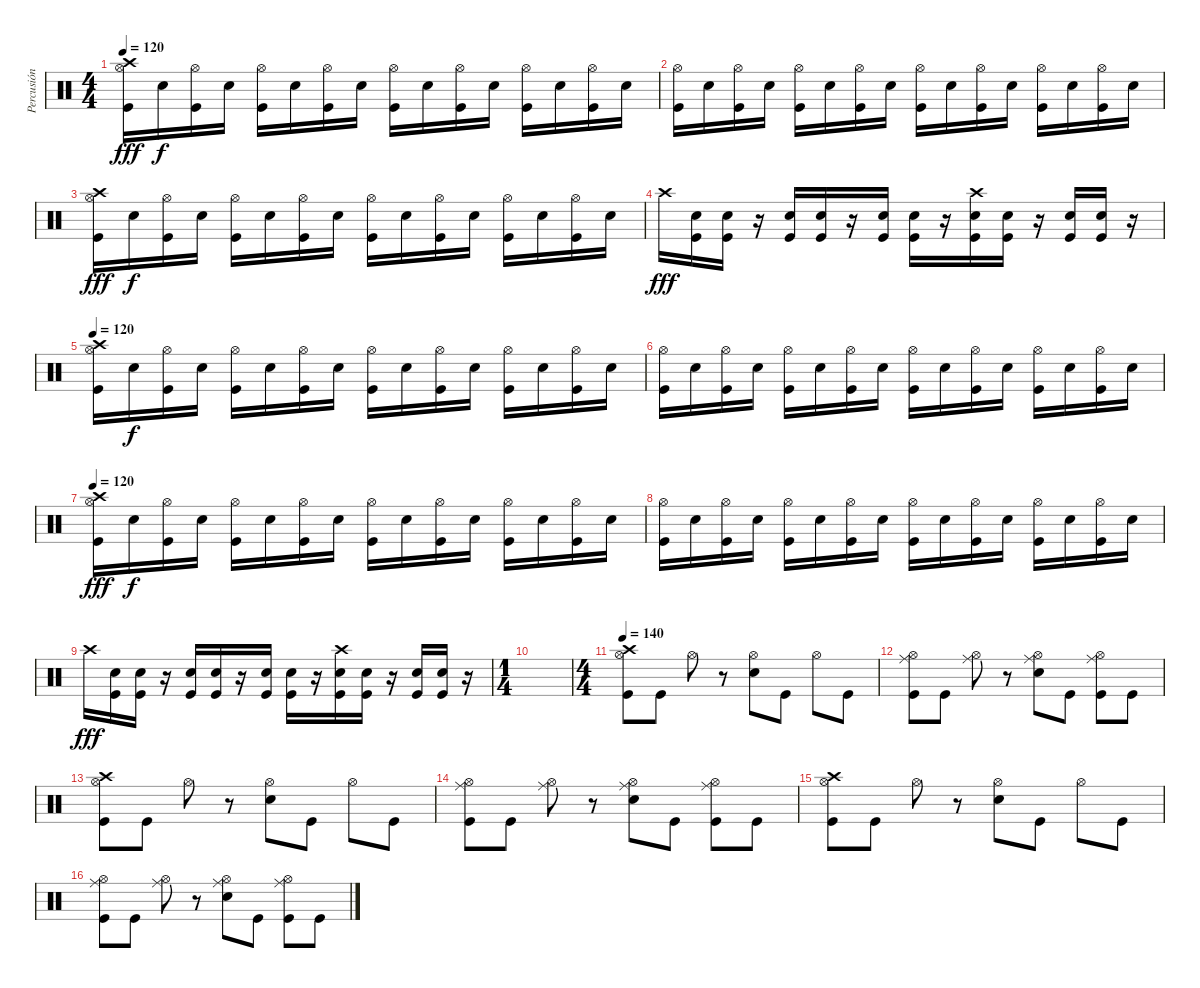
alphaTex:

\track ("Percusión  Gabriela" "Percusión ") {instrument percussion}
\staff {score}
\articulation defaults
\ts (4 4)
\tempo 120
\clef neutral
\ks c
("Crash high (hit)" "Kick (hit)" "Hi-Hat (open)").16{dy fff} "Snare (hit) 2".16{dy f} ("Kick (hit)" "Hi-Hat (open)").16 "Snare (hit) 2".16 ("Kick (hit)" "Hi-Hat (open)").16 "Snare (hit) 2".16 ("Kick (hit)" "Hi-Hat (open)").16 "Snare (hit) 2".16 ("Kick (hit)" "Hi-Hat (open)").16 "Snare (hit) 2".16 ("Kick (hit)" "Hi-Hat (open)").16 "Snare (hit) 2".16 ("Kick (hit)" "Hi-Hat (open)").16 "Snare (hit) 2".16 ("Kick (hit)" "Hi-Hat (open)").16 "Snare (hit) 2".16 |
("Kick (hit)" "Hi-Hat (open)").16 "Snare (hit) 2".16 ("Kick (hit)" "Hi-Hat (open)").16 "Snare (hit) 2".16 ("Kick (hit)" "Hi-Hat (open)").16 "Snare (hit) 2".16 ("Kick (hit)" "Hi-Hat (open)").16 "Snare (hit) 2".16 ("Kick (hit)" "Hi-Hat (open)").16 "Snare (hit) 2".16 ("Kick (hit)" "Hi-Hat (open)").16 "Snare (hit) 2".16 ("Kick (hit)" "Hi-Hat (open)").16 "Snare (hit) 2".16 ("Kick (hit)" "Hi-Hat (open)").16 "Snare (hit) 2".16 |
("Crash high (hit)" "Kick (hit)" "Hi-Hat (open)").16{dy fff} "Snare (hit) 2".16{dy f} ("Kick (hit)" "Hi-Hat (open)").16 "Snare (hit) 2".16 ("Kick (hit)" "Hi-Hat (open)").16 "Snare (hit) 2".16 ("Kick (hit)" "Hi-Hat (open)").16 "Snare (hit) 2".16 ("Kick (hit)" "Hi-Hat (open)").16 "Snare (hit) 2".16 ("Kick (hit)" "Hi-Hat (open)").16 "Snare (hit) 2".16 ("Kick (hit)" "Hi-Hat (open)").16 "Snare (hit) 2".16 ("Kick (hit)" "Hi-Hat (open)").16 "Snare (hit) 2".16 |
"Crash high (hit)".16{dy fff} ("Snare (hit) 2" "Kick (hit)").16 ("Snare (hit) 2" "Kick (hit)").16 r.16 ("Snare (hit) 2" "Kick (hit)").16 ("Snare (hit) 2" "Kick (hit)").16 r.16 ("Snare (hit) 2" "Kick (hit)").16 ("Snare (hit) 2" "Kick (hit)").16 r.16 ("Crash high (hit)" "Snare (hit) 2" "Kick (hit)").16 ("Snare (hit) 2" "Kick (hit)").16 r.16 ("Snare (hit) 2" "Kick (hit)").16 ("Snare (hit) 2" "Kick (hit)").16 r.16 |
\tempo 120
("Crash high (hit)" "Kick (hit)" "Hi-Hat (open)").16 "Snare (hit) 2".16{dy f} ("Kick (hit)" "Hi-Hat (open)").16 "Snare (hit) 2".16 ("Kick (hit)" "Hi-Hat (open)").16 "Snare (hit) 2".16 ("Kick (hit)" "Hi-Hat (open)").16 "Snare (hit) 2".16 ("Kick (hit)" "Hi-Hat (open)").16 "Snare (hit) 2".16 ("Kick (hit)" "Hi-Hat (open)").16 "Snare (hit) 2".16 ("Kick (hit)" "Hi-Hat (open)").16 "Snare (hit) 2".16 ("Kick (hit)" "Hi-Hat (open)").16 "Snare (hit) 2".16 |
("Kick (hit)" "Hi-Hat (open)").16 "Snare (hit) 2".16 ("Kick (hit)" "Hi-Hat (open)").16 "Snare (hit) 2".16 ("Kick (hit)" "Hi-Hat (open)").16 "Snare (hit) 2".16 ("Kick (hit)" "Hi-Hat (open)").16 "Snare (hit) 2".16 ("Kick (hit)" "Hi-Hat (open)").16 "Snare (hit) 2".16 ("Kick (hit)" "Hi-Hat (open)").16 "Snare (hit) 2".16 ("Kick (hit)" "Hi-Hat (open)").16 "Snare (hit) 2".16 ("Kick (hit)" "Hi-Hat (open)").16 "Snare (hit) 2".16 |
\tempo 120
("Crash high (hit)" "Kick (hit)" "Hi-Hat (open)").16{dy fff} "Snare (hit) 2".16{dy f} ("Kick (hit)" "Hi-Hat (open)").16 "Snare (hit) 2".16 ("Kick (hit)" "Hi-Hat (open)").16 "Snare (hit) 2".16 ("Kick (hit)" "Hi-Hat (open)").16 "Snare (hit) 2".16 ("Kick (hit)" "Hi-Hat (open)").16 "Snare (hit) 2".16 ("Kick (hit)" "Hi-Hat (open)").16 "Snare (hit) 2".16 ("Kick (hit)" "Hi-Hat (open)").16 "Snare (hit) 2".16 ("Kick (hit)" "Hi-Hat (open)").16 "Snare (hit) 2".16 |
("Kick (hit)" "Hi-Hat (open)").16 "Snare (hit) 2".16 ("Kick (hit)" "Hi-Hat (open)").16 "Snare (hit) 2".16 ("Kick (hit)" "Hi-Hat (open)").16 "Snare (hit) 2".16 ("Kick (hit)" "Hi-Hat (open)").16 "Snare (hit) 2".16 ("Kick (hit)" "Hi-Hat (open)").16 "Snare (hit) 2".16 ("Kick (hit)" "Hi-Hat (open)").16 "Snare (hit) 2".16 ("Kick (hit)" "Hi-Hat (open)").16 "Snare (hit) 2".16 ("Kick (hit)" "Hi-Hat (open)").16 "Snare (hit) 2".16 |
"Crash high (hit)".16{dy fff} ("Snare (hit) 2" "Kick (hit)").16 ("Snare (hit) 2" "Kick (hit)").16 r.16 ("Snare (hit) 2" "Kick (hit)").16 ("Snare (hit) 2" "Kick (hit)").16 r.16 ("Snare (hit) 2" "Kick (hit)").16 ("Snare (hit) 2" "Kick (hit)").16 r.16 ("Crash high (hit)" "Snare (hit) 2" "Kick (hit)").16 ("Snare (hit) 2" "Kick (hit)").16 r.16 ("Snare (hit) 2" "Kick (hit)").16 ("Snare (hit) 2" "Kick (hit)").16 r.16 |
\ts (1 4)
|
\ts (4 4)
\tempo 140
("Crash high (hit)" "Hi-Hat (open)" "Kick (hit)").8 "Kick (hit)".8 "Hi-Hat (open)".8 r.8 ("Hi-Hat (open)" "Snare (hit) 2").8 "Kick (hit)".8 "Hi-Hat (open)".8 "Kick (hit)".8 |
("Hi-Hat (open)" "Kick (hit)" "Ride (middle)").8 "Kick (hit)".8 ("Hi-Hat (open)" "Ride (middle)").8 r.8 ("Hi-Hat (open)" "Ride (middle)" "Snare (hit) 2").8 "Kick (hit)".8 ("Hi-Hat (open)" "Ride (middle)" "Kick (hit)").8 "Kick (hit)".8 |
("Crash high (hit)" "Hi-Hat (open)" "Kick (hit)").8 "Kick (hit)".8 "Hi-Hat (open)".8 r.8 ("Hi-Hat (open)" "Snare (hit) 2").8 "Kick (hit)".8 "Hi-Hat (open)".8 "Kick (hit)".8 |
("Hi-Hat (open)" "Kick (hit)" "Ride (middle)").8 "Kick (hit)".8 ("Hi-Hat (open)" "Ride (middle)").8 r.8 ("Hi-Hat (open)" "Ride (middle)" "Snare (hit) 2").8 "Kick (hit)".8 ("Hi-Hat (open)" "Ride (middle)" "Kick (hit)").8 "Kick (hit)".8 |
("Crash high (hit)" "Hi-Hat (open)" "Kick (hit)").8 "Kick (hit)".8 "Hi-Hat (open)".8 r.8 ("Hi-Hat (open)" "Snare (hit) 2").8 "Kick (hit)".8 "Hi-Hat (open)".8 "Kick (hit)".8 |
("Hi-Hat (open)" "Kick (hit)" "Ride (middle)").8 "Kick (hit)".8 ("Hi-Hat (open)" "Ride (middle)").8 r.8 ("Hi-Hat (open)" "Ride (middle)" "Snare (hit) 2").8 "Kick (hit)".8 ("Hi-Hat (open)" "Ride (middle)" "Kick (hit)").8 "Kick (hit)".8
